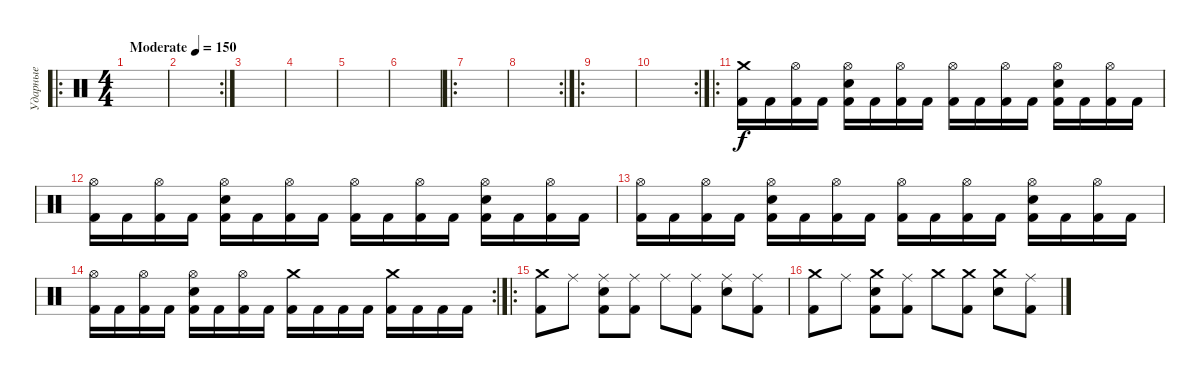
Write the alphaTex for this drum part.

\track ("Ударные" "Ударные") {instrument percussion}
\staff {score}
\articulation defaults
\ro
\ts (4 4)
\tempo (150 "Moderate")
\clef neutral
\ks c
|
\rc 2
|
|
|
|
|
\ro
|
\rc 2
|
\ro
|
\rc 2
|
\ro
("Crash medium (hit)" "Kick (hit) 2").16 "Kick (hit) 2".16 ("Hi-Hat (open)" "Kick (hit) 2").16 "Kick (hit) 2".16 ("Hi-Hat (open)" "Snare (hit) 2" "Kick (hit) 2").16 "Kick (hit) 2".16 ("Hi-Hat (open)" "Kick (hit) 2").16 "Kick (hit) 2".16 ("Hi-Hat (open)" "Kick (hit) 2").16 "Kick (hit) 2".16 ("Hi-Hat (open)" "Kick (hit) 2").16 "Kick (hit) 2".16 ("Hi-Hat (open)" "Snare (hit) 2" "Kick (hit) 2").16 "Kick (hit) 2".16 ("Hi-Hat (open)" "Kick (hit) 2").16 "Kick (hit) 2".16 |
("Hi-Hat (open)" "Kick (hit) 2").16 "Kick (hit) 2".16 ("Hi-Hat (open)" "Kick (hit) 2").16 "Kick (hit) 2".16 ("Hi-Hat (open)" "Snare (hit) 2" "Kick (hit) 2").16 "Kick (hit) 2".16 ("Hi-Hat (open)" "Kick (hit) 2").16 "Kick (hit) 2".16 ("Hi-Hat (open)" "Kick (hit) 2").16 "Kick (hit) 2".16 ("Hi-Hat (open)" "Kick (hit) 2").16 "Kick (hit) 2".16 ("Hi-Hat (open)" "Snare (hit) 2" "Kick (hit) 2").16 "Kick (hit) 2".16 ("Hi-Hat (open)" "Kick (hit) 2").16 "Kick (hit) 2".16 |
("Hi-Hat (open)" "Kick (hit) 2").16 "Kick (hit) 2".16 ("Hi-Hat (open)" "Kick (hit) 2").16 "Kick (hit) 2".16 ("Hi-Hat (open)" "Snare (hit) 2" "Kick (hit) 2").16 "Kick (hit) 2".16 ("Hi-Hat (open)" "Kick (hit) 2").16 "Kick (hit) 2".16 ("Hi-Hat (open)" "Kick (hit) 2").16 "Kick (hit) 2".16 ("Hi-Hat (open)" "Kick (hit) 2").16 "Kick (hit) 2".16 ("Hi-Hat (open)" "Snare (hit) 2" "Kick (hit) 2").16 "Kick (hit) 2".16 ("Hi-Hat (open)" "Kick (hit) 2").16 "Kick (hit) 2".16 |
\rc 2
("Hi-Hat (open)" "Kick (hit) 2").16 "Kick (hit) 2".16 ("Hi-Hat (open)" "Kick (hit) 2").16 "Kick (hit) 2".16 ("Hi-Hat (open)" "Snare (hit) 2" "Kick (hit) 2").16 "Kick (hit) 2".16 ("Hi-Hat (open)" "Kick (hit) 2").16 "Kick (hit) 2".16 ("Crash medium (hit)" "Kick (hit) 2").16 "Kick (hit) 2".16 "Kick (hit) 2".16 "Kick (hit) 2".16 ("Crash medium (hit)" "Kick (hit) 2").16 "Kick (hit) 2".16 "Kick (hit) 2".16 "Kick (hit) 2".16 |
\ro
("Crash medium (hit)" "Kick (hit) 2").8 "Ride (middle)".8 ("Ride (middle)" "Snare (hit) 2" "Kick (hit) 2").8 ("Ride (middle)" "Kick (hit) 2").8 "Ride (middle)".8 ("Ride (middle)" "Kick (hit) 2").8 ("Ride (middle)" "Snare (hit) 2").8 ("Ride (middle)" "Kick (hit) 2").8 |
("Crash medium (hit)" "Kick (hit) 2").8 "Ride (middle)".8 ("Crash medium (hit)" "Snare (hit) 2" "Kick (hit) 2").8 ("Ride (middle)" "Kick (hit) 2").8 "Crash medium (hit)".8 ("Crash medium (hit)" "Kick (hit) 2").8 ("Crash medium (hit)" "Snare (hit) 2").8 ("Ride (middle)" "Kick (hit) 2").8
